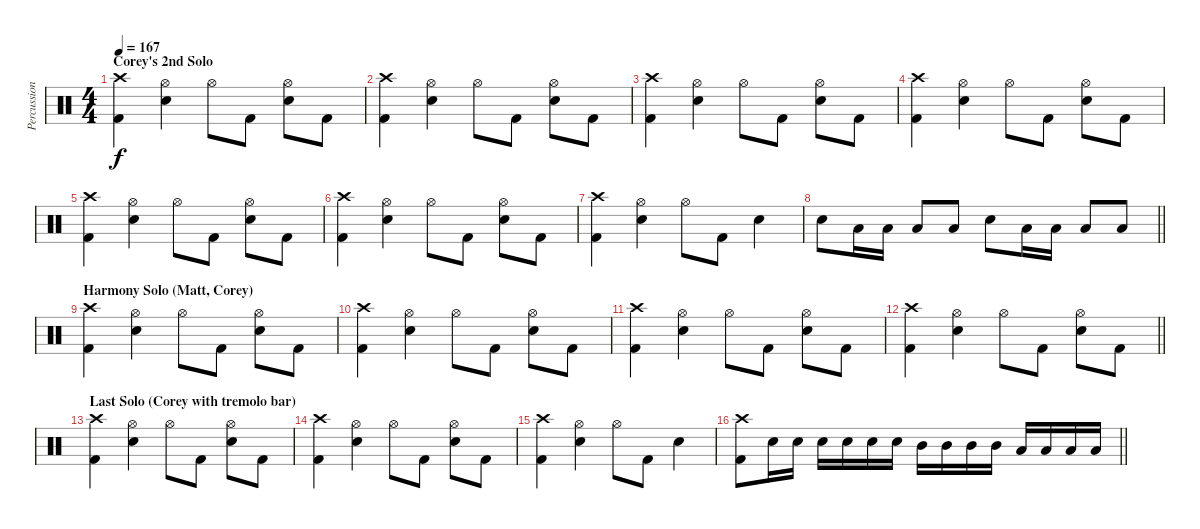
\track ("Percussion" "Percussion") {instrument percussion}
\staff {score}
\articulation defaults
\ts (4 4)
\section ("" "Corey's 2nd Solo")
\tempo 167
\clef neutral
\ks c
("Crash high (hit)" "Kick (hit) 2").4{dy f} ("Hi-Hat (open)" "Snare (hit) 2").4 "Hi-Hat (open)".8 "Kick (hit) 2".8 ("Hi-Hat (open)" "Snare (hit) 2").8 "Kick (hit) 2".8 |
("Crash high (hit)" "Kick (hit) 2").4 ("Hi-Hat (open)" "Snare (hit) 2").4 "Hi-Hat (open)".8 "Kick (hit) 2".8 ("Hi-Hat (open)" "Snare (hit) 2").8 "Kick (hit) 2".8 |
("Crash high (hit)" "Kick (hit) 2").4 ("Hi-Hat (open)" "Snare (hit) 2").4 "Hi-Hat (open)".8 "Kick (hit) 2".8 ("Hi-Hat (open)" "Snare (hit) 2").8 "Kick (hit) 2".8 |
("Crash high (hit)" "Kick (hit) 2").4 ("Hi-Hat (open)" "Snare (hit) 2").4 "Hi-Hat (open)".8 "Kick (hit) 2".8 ("Hi-Hat (open)" "Snare (hit) 2").8 "Kick (hit) 2".8 |
("Crash high (hit)" "Kick (hit) 2").4 ("Hi-Hat (open)" "Snare (hit) 2").4 "Hi-Hat (open)".8 "Kick (hit) 2".8 ("Hi-Hat (open)" "Snare (hit) 2").8 "Kick (hit) 2".8 |
("Crash high (hit)" "Kick (hit) 2").4 ("Hi-Hat (open)" "Snare (hit) 2").4 "Hi-Hat (open)".8 "Kick (hit) 2".8 ("Hi-Hat (open)" "Snare (hit) 2").8 "Kick (hit) 2".8 |
("Crash high (hit)" "Kick (hit) 2").4 ("Hi-Hat (open)" "Snare (hit) 2").4 "Hi-Hat (open)".8 "Kick (hit) 2".8 "Snare (hit) 2".4 |
\barLineRight lightlight "Snare (hit) 2".8 "Low Tom (hit)".16 "Low Tom (hit)".16 "Low Tom (hit)".8 "Low Tom (hit)".8 "Snare (hit) 2".8 "Low Tom (hit)".16 "Low Tom (hit)".16 "Low Tom (hit)".8 "Low Tom (hit)".8
|
\section ("" "Harmony Solo (Matt, Corey)")
("Crash high (hit)" "Kick (hit) 2").4 ("Hi-Hat (open)" "Snare (hit) 2").4 "Hi-Hat (open)".8 "Kick (hit) 2".8 ("Hi-Hat (open)" "Snare (hit) 2").8 "Kick (hit) 2".8 |
("Crash high (hit)" "Kick (hit) 2").4 ("Hi-Hat (open)" "Snare (hit) 2").4 "Hi-Hat (open)".8 "Kick (hit) 2".8 ("Hi-Hat (open)" "Snare (hit) 2").8 "Kick (hit) 2".8 |
("Crash high (hit)" "Kick (hit) 2").4 ("Hi-Hat (open)" "Snare (hit) 2").4 "Hi-Hat (open)".8 "Kick (hit) 2".8 ("Hi-Hat (open)" "Snare (hit) 2").8 "Kick (hit) 2".8 |
\barLineRight lightlight
("Crash high (hit)" "Kick (hit) 2").4 ("Hi-Hat (open)" "Snare (hit) 2").4 "Hi-Hat (open)".8 "Kick (hit) 2".8 ("Hi-Hat (open)" "Snare (hit) 2").8 "Kick (hit) 2".8 |
\section ("" "Last Solo (Corey with tremolo bar)")
("Crash high (hit)" "Kick (hit) 2").4 ("Hi-Hat (open)" "Snare (hit) 2").4 "Hi-Hat (open)".8 "Kick (hit) 2".8 ("Hi-Hat (open)" "Snare (hit) 2").8 "Kick (hit) 2".8 |
("Crash high (hit)" "Kick (hit) 2").4 ("Hi-Hat (open)" "Snare (hit) 2").4 "Hi-Hat (open)".8 "Kick (hit) 2".8 ("Hi-Hat (open)" "Snare (hit) 2").8 "Kick (hit) 2".8 |
("Crash high (hit)" "Kick (hit) 2").4 ("Hi-Hat (open)" "Snare (hit) 2").4 "Hi-Hat (open)".8 "Kick (hit) 2".8 "Snare (hit) 2".4 |
\barLineRight lightlight
("Crash high (hit)" "Kick (hit) 2").8 "Snare (hit) 2".16 "Snare (hit) 2".16 "Snare (hit) 2".16 "Snare (hit) 2".16 "Snare (hit) 2".16 "Snare (hit) 2".16 "Mid Tom (hit)".16 "Mid Tom (hit)".16 "Mid Tom (hit)".16 "Mid Tom (hit)".16 "Low Tom (hit)".16 "Low Tom (hit)".16 "Low Tom (hit)".16 "Low Tom (hit)".16
